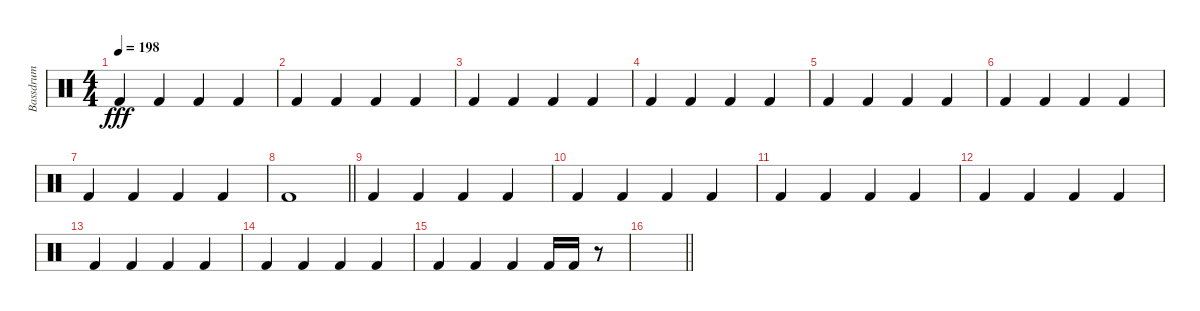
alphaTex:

\track ("Bassdrum" "Bassdrum") {instrument percussion}
\staff {score}
\articulation defaults
\ts (4 4)
\tempo 198
\clef neutral
\ks c "Kick (hit) 2".4{dy fff} "Kick (hit) 2".4 "Kick (hit) 2".4 "Kick (hit) 2".4
|
"Kick (hit) 2".4 "Kick (hit) 2".4 "Kick (hit) 2".4 "Kick (hit) 2".4 |
"Kick (hit) 2".4 "Kick (hit) 2".4 "Kick (hit) 2".4 "Kick (hit) 2".4 |
"Kick (hit) 2".4 "Kick (hit) 2".4 "Kick (hit) 2".4 "Kick (hit) 2".4 |
"Kick (hit) 2".4 "Kick (hit) 2".4 "Kick (hit) 2".4 "Kick (hit) 2".4 |
"Kick (hit) 2".4 "Kick (hit) 2".4 "Kick (hit) 2".4 "Kick (hit) 2".4 |
"Kick (hit) 2".4 "Kick (hit) 2".4 "Kick (hit) 2".4 "Kick (hit) 2".4 |
\barLineRight lightlight "Kick (hit) 2".1
|
\section ("" "")
"Kick (hit) 2".4 "Kick (hit) 2".4 "Kick (hit) 2".4 "Kick (hit) 2".4 |
"Kick (hit) 2".4 "Kick (hit) 2".4 "Kick (hit) 2".4 "Kick (hit) 2".4 |
"Kick (hit) 2".4 "Kick (hit) 2".4 "Kick (hit) 2".4 "Kick (hit) 2".4 |
"Kick (hit) 2".4 "Kick (hit) 2".4 "Kick (hit) 2".4 "Kick (hit) 2".4 |
"Kick (hit) 2".4 "Kick (hit) 2".4 "Kick (hit) 2".4 "Kick (hit) 2".4 |
"Kick (hit) 2".4 "Kick (hit) 2".4 "Kick (hit) 2".4 "Kick (hit) 2".4 |
"Kick (hit) 2".4 "Kick (hit) 2".4 "Kick (hit) 2".4 "Kick (hit) 2".16 "Kick (hit) 2".16 r.8 |
\barLineRight lightlight
